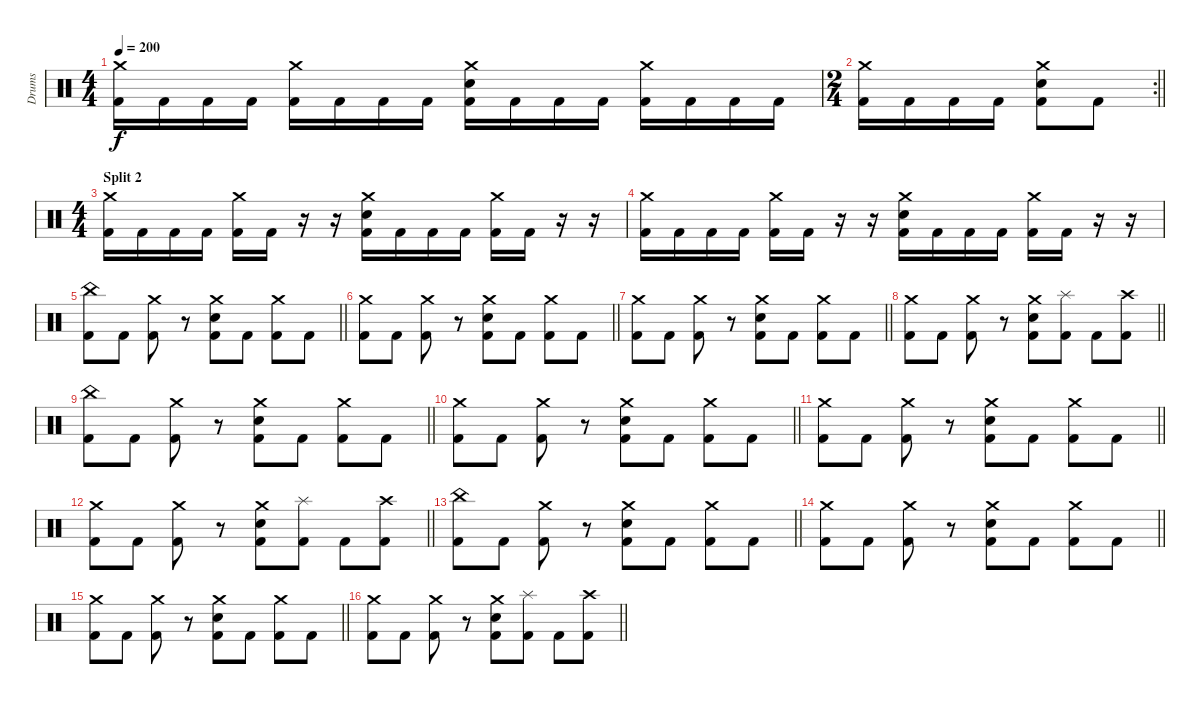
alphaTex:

\track ("Drums" "Drums") {instrument percussion}
\staff {score}
\articulation defaults
\ts (4 4)
\tempo 200
\clef neutral
\ks c
("Crash medium (hit)" "Kick (hit) 2").16{dy f} "Kick (hit) 2".16 "Kick (hit) 2".16 "Kick (hit) 2".16 ("Crash medium (hit)" "Kick (hit) 2").16 "Kick (hit) 2".16 "Kick (hit) 2".16 "Kick (hit) 2".16 ("Crash medium (hit)" "Snare (hit) 2" "Kick (hit) 2").16 "Kick (hit) 2".16 "Kick (hit) 2".16 "Kick (hit) 2".16 ("Crash medium (hit)" "Kick (hit) 2").16 "Kick (hit) 2".16 "Kick (hit) 2".16 "Kick (hit) 2".16 |
\rc 2
\ts (2 4)
\barLineRight lightlight
("Crash medium (hit)" "Kick (hit) 2").16 "Kick (hit) 2".16 "Kick (hit) 2".16 "Kick (hit) 2".16 ("Crash medium (hit)" "Snare (hit) 2" "Kick (hit) 2").8 "Kick (hit) 2".8 |
\ts (4 4)
\section ("" "Split 2")
("Crash medium (hit)" "Kick (hit) 2").16 "Kick (hit) 2".16 "Kick (hit) 2".16 "Kick (hit) 2".16 ("Crash medium (hit)" "Kick (hit) 2").16 "Kick (hit) 2".16 r.16 r.16 ("Crash medium (hit)" "Snare (hit) 2" "Kick (hit) 2").16 "Kick (hit) 2".16 "Kick (hit) 2".16 "Kick (hit) 2".16 ("Crash medium (hit)" "Kick (hit) 2").16 "Kick (hit) 2".16 r.16 r.16 |
("Crash medium (hit)" "Kick (hit) 2").16 "Kick (hit) 2".16 "Kick (hit) 2".16 "Kick (hit) 2".16 ("Crash medium (hit)" "Kick (hit) 2").16 "Kick (hit) 2".16 r.16 r.16 ("Crash medium (hit)" "Snare (hit) 2" "Kick (hit) 2").16 "Kick (hit) 2".16 "Kick (hit) 2".16 "Kick (hit) 2".16 ("Crash medium (hit)" "Kick (hit) 2").16 "Kick (hit) 2".16 r.16 r.16 |
\barLineRight lightlight
("China (hit)" "Kick (hit) 2").8 "Kick (hit) 2".8 ("Crash medium (hit)" "Kick (hit) 2").8 r.8 ("Crash medium (hit)" "Snare (hit) 2" "Kick (hit) 2").8 "Kick (hit) 2".8 ("Crash medium (hit)" "Kick (hit) 2").8 "Kick (hit) 2".8 |
\barLineRight lightlight
("Crash medium (hit)" "Kick (hit) 2").8 "Kick (hit) 2".8 ("Crash medium (hit)" "Kick (hit) 2").8 r.8 ("Crash medium (hit)" "Snare (hit) 2" "Kick (hit) 2").8 "Kick (hit) 2".8 ("Crash medium (hit)" "Kick (hit) 2").8 "Kick (hit) 2".8 |
\barLineRight lightlight
("Crash medium (hit)" "Kick (hit) 2").8 "Kick (hit) 2".8 ("Crash medium (hit)" "Kick (hit) 2").8 r.8 ("Crash medium (hit)" "Snare (hit) 2" "Kick (hit) 2").8 "Kick (hit) 2".8 ("Crash medium (hit)" "Kick (hit) 2").8 "Kick (hit) 2".8 |
\barLineRight lightlight
("Crash medium (hit)" "Kick (hit) 2").8 "Kick (hit) 2".8 ("Crash medium (hit)" "Kick (hit) 2").8 r.8 ("Crash medium (hit)" "Snare (hit) 2" "Kick (hit) 2").8 ("Splash (hit)" "Kick (hit) 2").8 "Kick (hit) 2".8 ("Crash high (hit)" "Kick (hit) 2").8 |
\barLineRight lightlight
("China (hit)" "Kick (hit) 2").8 "Kick (hit) 2".8 ("Crash medium (hit)" "Kick (hit) 2").8 r.8 ("Crash medium (hit)" "Snare (hit) 2" "Kick (hit) 2").8 "Kick (hit) 2".8 ("Crash medium (hit)" "Kick (hit) 2").8 "Kick (hit) 2".8 |
\barLineRight lightlight
("Crash medium (hit)" "Kick (hit) 2").8 "Kick (hit) 2".8 ("Crash medium (hit)" "Kick (hit) 2").8 r.8 ("Crash medium (hit)" "Snare (hit) 2" "Kick (hit) 2").8 "Kick (hit) 2".8 ("Crash medium (hit)" "Kick (hit) 2").8 "Kick (hit) 2".8 |
\barLineRight lightlight
("Crash medium (hit)" "Kick (hit) 2").8 "Kick (hit) 2".8 ("Crash medium (hit)" "Kick (hit) 2").8 r.8 ("Crash medium (hit)" "Snare (hit) 2" "Kick (hit) 2").8 "Kick (hit) 2".8 ("Crash medium (hit)" "Kick (hit) 2").8 "Kick (hit) 2".8 |
\barLineRight lightlight
("Crash medium (hit)" "Kick (hit) 2").8 "Kick (hit) 2".8 ("Crash medium (hit)" "Kick (hit) 2").8 r.8 ("Crash medium (hit)" "Snare (hit) 2" "Kick (hit) 2").8 ("Splash (hit)" "Kick (hit) 2").8 "Kick (hit) 2".8 ("Crash high (hit)" "Kick (hit) 2").8 |
\barLineRight lightlight
("China (hit)" "Kick (hit) 2").8 "Kick (hit) 2".8 ("Crash medium (hit)" "Kick (hit) 2").8 r.8 ("Crash medium (hit)" "Snare (hit) 2" "Kick (hit) 2").8 "Kick (hit) 2".8 ("Crash medium (hit)" "Kick (hit) 2").8 "Kick (hit) 2".8 |
\barLineRight lightlight
("Crash medium (hit)" "Kick (hit) 2").8 "Kick (hit) 2".8 ("Crash medium (hit)" "Kick (hit) 2").8 r.8 ("Crash medium (hit)" "Snare (hit) 2" "Kick (hit) 2").8 "Kick (hit) 2".8 ("Crash medium (hit)" "Kick (hit) 2").8 "Kick (hit) 2".8 |
\barLineRight lightlight
("Crash medium (hit)" "Kick (hit) 2").8 "Kick (hit) 2".8 ("Crash medium (hit)" "Kick (hit) 2").8 r.8 ("Crash medium (hit)" "Snare (hit) 2" "Kick (hit) 2").8 "Kick (hit) 2".8 ("Crash medium (hit)" "Kick (hit) 2").8 "Kick (hit) 2".8 |
\barLineRight lightlight
("Crash medium (hit)" "Kick (hit) 2").8 "Kick (hit) 2".8 ("Crash medium (hit)" "Kick (hit) 2").8 r.8 ("Crash medium (hit)" "Snare (hit) 2" "Kick (hit) 2").8 ("Splash (hit)" "Kick (hit) 2").8 "Kick (hit) 2".8 ("Crash high (hit)" "Kick (hit) 2").8
